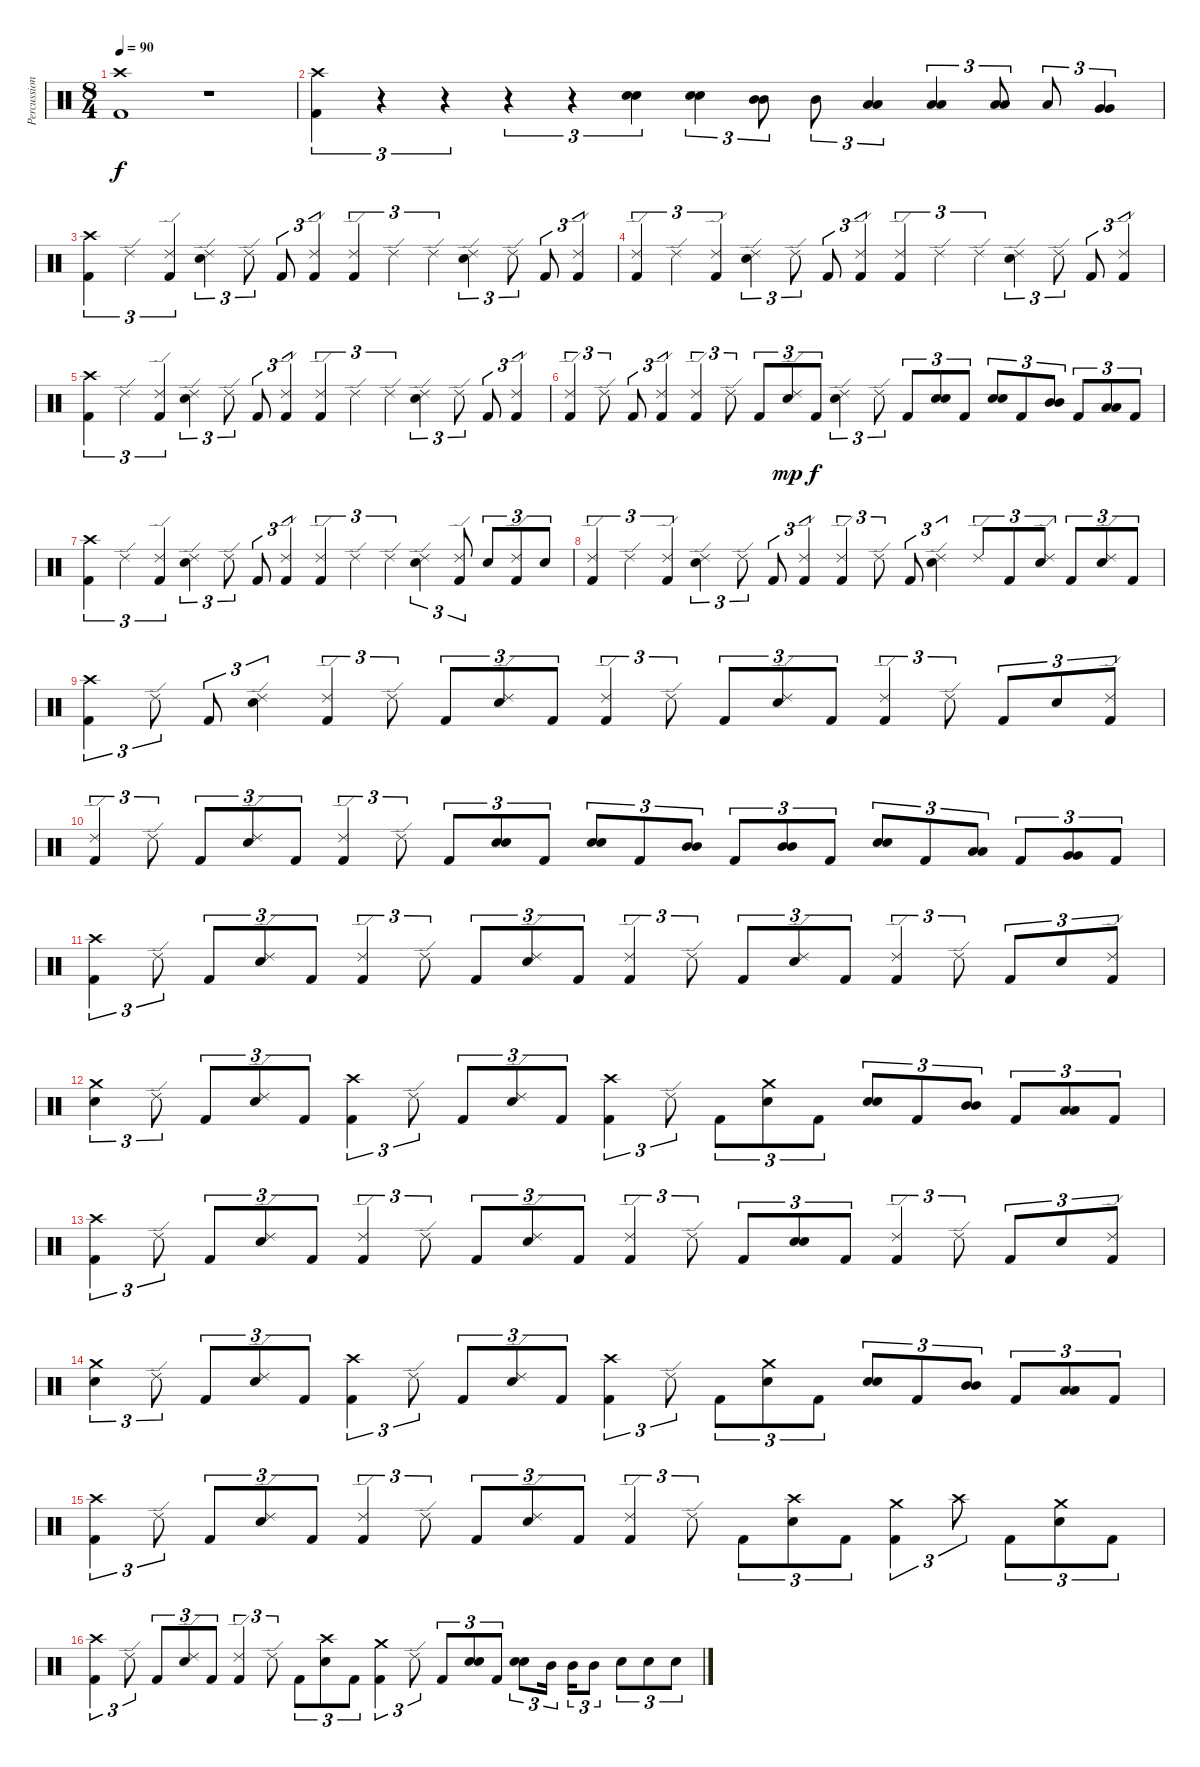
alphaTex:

\track ("Percussion" "Percussion") {instrument percussion}
\staff {score}
\articulation defaults
\ts (8 4)
\tempo 90
\clef neutral
\ks c
("Crash high (hit)" "Kick (hit) 2").1{dy f} r.1 |
("Crash high (hit)" "Kick (hit) 2").4{tu (3 2)} r.4{tu (3 2)} r.4{tu (3 2)} r.4{tu (3 2)} r.4{tu (3 2)} ("Electric Snare (hit)" "Electric Snare (hit)").4{tu (3 2) bu 60} ("Electric Snare (hit)" "Electric Snare (hit)").4{tu (3 2) bu 60} ("Mid Tom (hit)" "Mid Tom (hit)").8{tu (3 2) bu 60} "Mid Tom (hit)".8{tu (3 2)} ("Low Tom (hit)" "Low Tom (hit)").4{tu (3 2) bu 60} ("Low Tom (hit)" "Low Tom (hit)").4{tu (3 2) bu 60} ("Low Tom (hit)" "Low Tom (hit)").8{tu (3 2) bu 60} "Low Tom (hit)".8{tu (3 2)} ("Very Low Tom (hit)" "Very Low Tom (hit)").4{tu (3 2) bu 60} |
("Crash high (hit)" "Kick (hit) 2").4{tu (3 2)} "Ride (edge) 2".4{tu (3 2)} ("Ride (edge) 2" "Kick (hit) 2").4{tu (3 2)} ("Ride (edge) 2" "Electric Snare (hit)").4{tu (3 2)} "Ride (edge) 2".8{tu (3 2)} "Kick (hit) 2".8{tu (3 2)} ("Ride (edge) 2" "Kick (hit) 2").4{tu (3 2)} ("Ride (edge) 2" "Kick (hit) 2").4{tu (3 2)} "Ride (edge) 2".4{tu (3 2)} "Ride (edge) 2".4{tu (3 2)} ("Ride (edge) 2" "Electric Snare (hit)").4{tu (3 2)} "Ride (edge) 2".8{tu (3 2)} "Kick (hit) 2".8{tu (3 2)} ("Ride (edge) 2" "Kick (hit) 2").4{tu (3 2)} |
("Ride (edge) 2" "Kick (hit) 2").4{tu (3 2)} "Ride (edge) 2".4{tu (3 2)} ("Ride (edge) 2" "Kick (hit) 2").4{tu (3 2)} ("Ride (edge) 2" "Electric Snare (hit)").4{tu (3 2)} "Ride (edge) 2".8{tu (3 2)} "Kick (hit) 2".8{tu (3 2)} ("Ride (edge) 2" "Kick (hit) 2").4{tu (3 2)} ("Ride (edge) 2" "Kick (hit) 2").4{tu (3 2)} "Ride (edge) 2".4{tu (3 2)} "Ride (edge) 2".4{tu (3 2)} ("Ride (edge) 2" "Electric Snare (hit)").4{tu (3 2)} "Ride (edge) 2".8{tu (3 2)} "Kick (hit) 2".8{tu (3 2)} ("Ride (edge) 2" "Kick (hit) 2").4{tu (3 2)} |
("Crash high (hit)" "Kick (hit) 2").4{tu (3 2)} "Ride (edge) 2".4{tu (3 2)} ("Ride (edge) 2" "Kick (hit) 2").4{tu (3 2)} ("Ride (edge) 2" "Electric Snare (hit)").4{tu (3 2)} "Ride (edge) 2".8{tu (3 2)} "Kick (hit) 2".8{tu (3 2)} ("Ride (edge) 2" "Kick (hit) 2").4{tu (3 2)} ("Ride (edge) 2" "Kick (hit) 2").4{tu (3 2)} "Ride (edge) 2".4{tu (3 2)} "Ride (edge) 2".4{tu (3 2)} ("Ride (edge) 2" "Electric Snare (hit)").4{tu (3 2)} "Ride (edge) 2".8{tu (3 2)} "Kick (hit) 2".8{tu (3 2)} ("Ride (edge) 2" "Kick (hit) 2").4{tu (3 2)} |
("Ride (edge) 2" "Kick (hit) 2").4{tu (3 2)} "Ride (edge) 2".8{tu (3 2)} "Kick (hit) 2".8{tu (3 2)} ("Ride (edge) 2" "Kick (hit) 2").4{tu (3 2)} ("Ride (edge) 2" "Kick (hit) 2").4{tu (3 2)} "Ride (edge) 2".8{tu (3 2)} "Kick (hit) 2".8{tu (3 2)} ("Ride (edge) 2" "Electric Snare (hit)").8{tu (3 2) dy mp} "Kick (hit) 2".8{tu (3 2) dy f} ("Ride (edge) 2" "Electric Snare (hit)").4{tu (3 2)} "Ride (edge) 2".8{tu (3 2)} "Kick (hit) 2".8{tu (3 2)} ("Electric Snare (hit)" "Electric Snare (hit)").8{tu (3 2) bu 60} "Kick (hit) 2".8{tu (3 2)} ("Electric Snare (hit)" "Electric Snare (hit)").8{tu (3 2) bu 60} "Kick (hit) 2".8{tu (3 2)} ("Mid Tom (hit)" "Mid Tom (hit)").8{tu (3 2) bu 60} "Kick (hit) 2".8{tu (3 2)} ("Low Tom (hit)" "Low Tom (hit)").8{tu (3 2) bu 60} "Kick (hit) 2".8{tu (3 2)} |
("Crash high (hit)" "Kick (hit) 2").4{tu (3 2)} "Ride (edge) 2".4{tu (3 2)} ("Ride (edge) 2" "Kick (hit) 2").4{tu (3 2)} ("Ride (edge) 2" "Electric Snare (hit)").4{tu (3 2)} "Ride (edge) 2".8{tu (3 2)} "Kick (hit) 2".8{tu (3 2)} ("Ride (edge) 2" "Kick (hit) 2").4{tu (3 2)} ("Ride (edge) 2" "Kick (hit) 2").4{tu (3 2)} "Ride (edge) 2".4{tu (3 2)} "Ride (edge) 2".4{tu (3 2)} ("Ride (edge) 2" "Electric Snare (hit)").4{tu (3 2)} ("Ride (edge) 2" "Kick (hit) 2").8{tu (3 2)} "Electric Snare (hit)".8{tu (3 2)} ("Ride (edge) 2" "Kick (hit) 2").8{tu (3 2)} "Electric Snare (hit)".8{tu (3 2)} |
("Ride (edge) 2" "Kick (hit) 2").4{tu (3 2)} "Ride (edge) 2".4{tu (3 2)} ("Ride (edge) 2" "Kick (hit) 2").4{tu (3 2)} ("Ride (edge) 2" "Electric Snare (hit)").4{tu (3 2)} "Ride (edge) 2".8{tu (3 2)} "Kick (hit) 2".8{tu (3 2)} ("Ride (edge) 2" "Kick (hit) 2").4{tu (3 2)} ("Ride (edge) 2" "Kick (hit) 2").4{tu (3 2)} "Ride (edge) 2".8{tu (3 2)} "Kick (hit) 2".8{tu (3 2)} ("Ride (edge) 2" "Electric Snare (hit)").4{tu (3 2)} "Ride (edge) 2".8{tu (3 2)} "Kick (hit) 2".8{tu (3 2)} ("Ride (edge) 2" "Electric Snare (hit)").8{tu (3 2)} "Kick (hit) 2".8{tu (3 2)} ("Ride (edge) 2" "Electric Snare (hit)").8{tu (3 2)} "Kick (hit) 2".8{tu (3 2)} |
("Crash high (hit)" "Kick (hit) 2").4{tu (3 2)} "Ride (edge) 2".8{tu (3 2)} "Kick (hit) 2".8{tu (3 2)} ("Ride (edge) 2" "Electric Snare (hit)").4{tu (3 2)} ("Ride (edge) 2" "Kick (hit) 2").4{tu (3 2)} "Ride (edge) 2".8{tu (3 2)} "Kick (hit) 2".8{tu (3 2)} ("Ride (edge) 2" "Electric Snare (hit)").8{tu (3 2)} "Kick (hit) 2".8{tu (3 2)} ("Ride (edge) 2" "Kick (hit) 2").4{tu (3 2)} "Ride (edge) 2".8{tu (3 2)} "Kick (hit) 2".8{tu (3 2)} ("Ride (edge) 2" "Electric Snare (hit)").8{tu (3 2)} "Kick (hit) 2".8{tu (3 2)} ("Ride (edge) 2" "Kick (hit) 2").4{tu (3 2)} "Ride (edge) 2".8{tu (3 2)} "Kick (hit) 2".8{tu (3 2)} "Electric Snare (hit)".8{tu (3 2)} ("Ride (edge) 2" "Kick (hit) 2").8{tu (3 2)} |
("Ride (edge) 2" "Kick (hit) 2").4{tu (3 2)} "Ride (edge) 2".8{tu (3 2)} "Kick (hit) 2".8{tu (3 2)} ("Ride (edge) 2" "Electric Snare (hit)").8{tu (3 2)} "Kick (hit) 2".8{tu (3 2)} ("Ride (edge) 2" "Kick (hit) 2").4{tu (3 2)} "Ride (edge) 2".8{tu (3 2)} "Kick (hit) 2".8{tu (3 2)} ("Electric Snare (hit)" "Electric Snare (hit)").8{tu (3 2) bu 60} "Kick (hit) 2".8{tu (3 2)} ("Electric Snare (hit)" "Electric Snare (hit)").8{tu (3 2) bu 60} "Kick (hit) 2".8{tu (3 2)} ("Mid Tom (hit)" "Mid Tom (hit)").8{tu (3 2) bu 60} "Kick (hit) 2".8{tu (3 2)} ("Mid Tom (hit)" "Mid Tom (hit)").8{tu (3 2) bu 60} "Kick (hit) 2".8{tu (3 2)} ("Electric Snare (hit)" "Electric Snare (hit)").8{tu (3 2) bu 60} "Kick (hit) 2".8{tu (3 2)} ("Low Tom (hit)" "Low Tom (hit)").8{tu (3 2) bu 60} "Kick (hit) 2".8{tu (3 2)} ("Very Low Tom (hit)" "Very Low Tom (hit)").8{tu (3 2) bu 60} "Kick (hit) 2".8{tu (3 2)} |
("Crash high (hit)" "Kick (hit) 2").4{tu (3 2)} "Ride (edge) 2".8{tu (3 2)} "Kick (hit) 2".8{tu (3 2)} ("Ride (edge) 2" "Electric Snare (hit)").8{tu (3 2)} "Kick (hit) 2".8{tu (3 2)} ("Ride (edge) 2" "Kick (hit) 2").4{tu (3 2)} "Ride (edge) 2".8{tu (3 2)} "Kick (hit) 2".8{tu (3 2)} ("Ride (edge) 2" "Electric Snare (hit)").8{tu (3 2)} "Kick (hit) 2".8{tu (3 2)} ("Ride (edge) 2" "Kick (hit) 2").4{tu (3 2)} "Ride (edge) 2".8{tu (3 2)} "Kick (hit) 2".8{tu (3 2)} ("Ride (edge) 2" "Electric Snare (hit)").8{tu (3 2)} "Kick (hit) 2".8{tu (3 2)} ("Ride (edge) 2" "Kick (hit) 2").4{tu (3 2)} "Ride (edge) 2".8{tu (3 2)} "Kick (hit) 2".8{tu (3 2)} "Electric Snare (hit)".8{tu (3 2)} ("Ride (edge) 2" "Kick (hit) 2").8{tu (3 2)} |
("Crash medium (hit)" "Electric Snare (hit)").4{tu (3 2)} "Ride (edge) 2".8{tu (3 2)} "Kick (hit) 2".8{tu (3 2)} ("Ride (edge) 2" "Electric Snare (hit)").8{tu (3 2)} "Kick (hit) 2".8{tu (3 2)} ("Crash high (hit)" "Kick (hit) 2").4{tu (3 2)} "Ride (edge) 2".8{tu (3 2)} "Kick (hit) 2".8{tu (3 2)} ("Ride (edge) 2" "Electric Snare (hit)").8{tu (3 2)} "Kick (hit) 2".8{tu (3 2)} ("Crash high (hit)" "Kick (hit) 2").4{tu (3 2)} "Ride (edge) 2".8{tu (3 2)} "Kick (hit) 2".8{tu (3 2)} ("Crash medium (hit)" "Electric Snare (hit)").8{tu (3 2)} "Kick (hit) 2".8{tu (3 2)} ("Electric Snare (hit)" "Electric Snare (hit)").8{tu (3 2) bu 60} "Kick (hit) 2".8{tu (3 2)} ("Mid Tom (hit)" "Mid Tom (hit)").8{tu (3 2) bu 60} "Kick (hit) 2".8{tu (3 2)} ("Low Tom (hit)" "Low Tom (hit)").8{tu (3 2) bu 60} "Kick (hit) 2".8{tu (3 2)} |
("Crash high (hit)" "Kick (hit) 2").4{tu (3 2)} "Ride (edge) 2".8{tu (3 2)} "Kick (hit) 2".8{tu (3 2)} ("Ride (edge) 2" "Electric Snare (hit)").8{tu (3 2)} "Kick (hit) 2".8{tu (3 2)} ("Ride (edge) 2" "Kick (hit) 2").4{tu (3 2)} "Ride (edge) 2".8{tu (3 2)} "Kick (hit) 2".8{tu (3 2)} ("Ride (edge) 2" "Electric Snare (hit)").8{tu (3 2)} "Kick (hit) 2".8{tu (3 2)} ("Ride (edge) 2" "Kick (hit) 2").4{tu (3 2)} "Ride (edge) 2".8{tu (3 2)} "Kick (hit) 2".8{tu (3 2)} ("Electric Snare (hit)" "Electric Snare (hit)").8{tu (3 2) bu 60} "Kick (hit) 2".8{tu (3 2)} ("Ride (edge) 2" "Kick (hit) 2").4{tu (3 2)} "Ride (edge) 2".8{tu (3 2)} "Kick (hit) 2".8{tu (3 2)} "Electric Snare (hit)".8{tu (3 2)} ("Ride (edge) 2" "Kick (hit) 2").8{tu (3 2)} |
("Crash medium (hit)" "Electric Snare (hit)").4{tu (3 2)} "Ride (edge) 2".8{tu (3 2)} "Kick (hit) 2".8{tu (3 2)} ("Ride (edge) 2" "Electric Snare (hit)").8{tu (3 2)} "Kick (hit) 2".8{tu (3 2)} ("Crash high (hit)" "Kick (hit) 2").4{tu (3 2)} "Ride (edge) 2".8{tu (3 2)} "Kick (hit) 2".8{tu (3 2)} ("Ride (edge) 2" "Electric Snare (hit)").8{tu (3 2)} "Kick (hit) 2".8{tu (3 2)} ("Crash high (hit)" "Kick (hit) 2").4{tu (3 2)} "Ride (edge) 2".8{tu (3 2)} "Kick (hit) 2".8{tu (3 2)} ("Crash medium (hit)" "Electric Snare (hit)").8{tu (3 2)} "Kick (hit) 2".8{tu (3 2)} ("Electric Snare (hit)" "Electric Snare (hit)").8{tu (3 2) bu 60} "Kick (hit) 2".8{tu (3 2)} ("Mid Tom (hit)" "Mid Tom (hit)").8{tu (3 2) bu 60} "Kick (hit) 2".8{tu (3 2)} ("Low Tom (hit)" "Low Tom (hit)").8{tu (3 2) bu 60} "Kick (hit) 2".8{tu (3 2)} |
("Crash high (hit)" "Kick (hit) 2").4{tu (3 2)} "Ride (edge) 2".8{tu (3 2)} "Kick (hit) 2".8{tu (3 2)} ("Ride (edge) 2" "Electric Snare (hit)").8{tu (3 2)} "Kick (hit) 2".8{tu (3 2)} ("Ride (edge) 2" "Kick (hit) 2").4{tu (3 2)} "Ride (edge) 2".8{tu (3 2)} "Kick (hit) 2".8{tu (3 2)} ("Ride (edge) 2" "Electric Snare (hit)").8{tu (3 2)} "Kick (hit) 2".8{tu (3 2)} ("Ride (edge) 2" "Kick (hit) 2").4{tu (3 2)} "Ride (edge) 2".8{tu (3 2)} "Kick (hit) 2".8{tu (3 2)} ("Crash high (hit)" "Electric Snare (hit)").8{tu (3 2)} "Kick (hit) 2".8{tu (3 2)} ("Crash medium (hit)" "Kick (hit) 2").4{tu (3 2)} "Crash high (hit)".8{tu (3 2)} "Kick (hit) 2".8{tu (3 2)} ("Crash medium (hit)" "Electric Snare (hit)").8{tu (3 2)} "Kick (hit) 2".8{tu (3 2)} |
("Crash high (hit)" "Kick (hit) 2").4{tu (3 2)} "Ride (edge) 2".8{tu (3 2)} "Kick (hit) 2".8{tu (3 2)} ("Ride (edge) 2" "Electric Snare (hit)").8{tu (3 2)} "Kick (hit) 2".8{tu (3 2)} ("Ride (edge) 2" "Kick (hit) 2").4{tu (3 2)} "Ride (edge) 2".8{tu (3 2)} "Kick (hit) 2".8{tu (3 2)} ("Crash high (hit)" "Electric Snare (hit)").8{tu (3 2)} "Kick (hit) 2".8{tu (3 2)} ("Crash medium (hit)" "Kick (hit) 2").4{tu (3 2)} "Ride (edge) 2".8{tu (3 2)} "Kick (hit) 2".8{tu (3 2)} ("Electric Snare (hit)" "Electric Snare (hit)").8{tu (3 2) bu 60} "Kick (hit) 2".8{tu (3 2)} ("Electric Snare (hit)" "Electric Snare (hit)").8{tu (3 2) bu 60} "Mid Tom (hit)".16{tu (3 2)} "Mid Tom (hit)".16{tu (3 2)} "Mid Tom (hit)".8{tu (3 2)} "Electric Snare (hit)".8{tu (3 2)} "Electric Snare (hit)".8{tu (3 2)} "Electric Snare (hit)".8{tu (3 2)}
